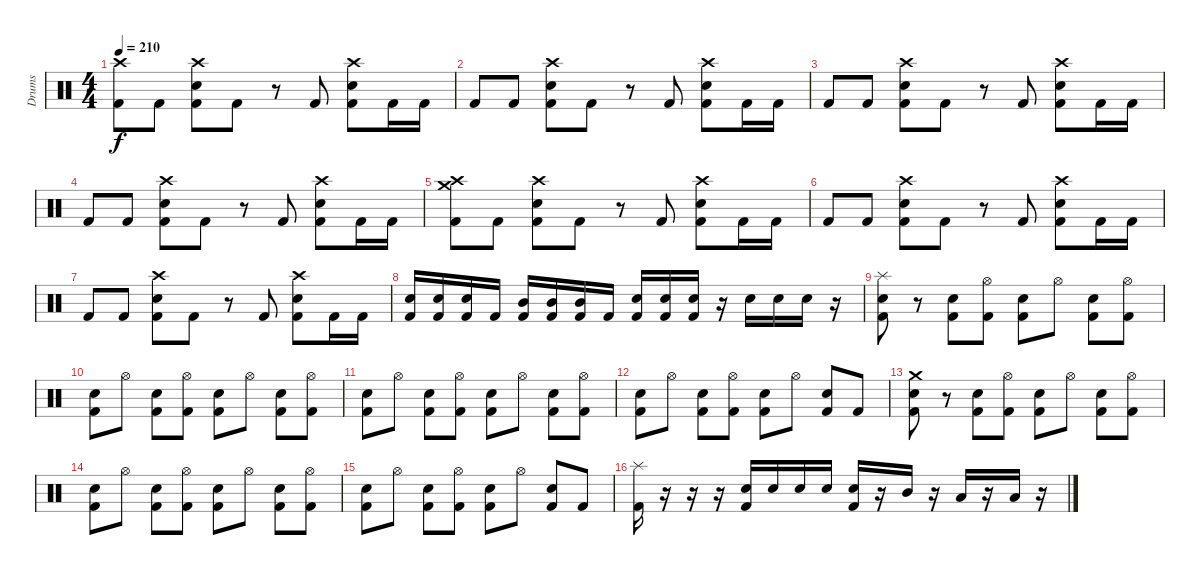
\track ("Drums" "Drums") {instrument percussion}
\staff {score}
\articulation defaults
\ts (4 4)
\tempo 210
\clef neutral
\ks c
("Crash high (hit)" "Kick (hit) 2").8{dy f} "Kick (hit) 2".8 ("Crash high (hit)" "Electric Snare (hit)" "Kick (hit) 2").8 "Kick (hit) 2".8 r.8 "Kick (hit) 2".8 ("Crash high (hit)" "Electric Snare (hit)" "Kick (hit) 2").8 "Kick (hit) 2".16 "Kick (hit) 2".16 |
"Kick (hit) 2".8 "Kick (hit) 2".8 ("Crash high (hit)" "Electric Snare (hit)" "Kick (hit) 2").8 "Kick (hit) 2".8 r.8 "Kick (hit) 2".8 ("Crash high (hit)" "Electric Snare (hit)" "Kick (hit) 2").8 "Kick (hit) 2".16 "Kick (hit) 2".16 |
"Kick (hit) 2".8 "Kick (hit) 2".8 ("Crash high (hit)" "Electric Snare (hit)" "Kick (hit) 2").8 "Kick (hit) 2".8 r.8 "Kick (hit) 2".8 ("Crash high (hit)" "Electric Snare (hit)" "Kick (hit) 2").8 "Kick (hit) 2".16 "Kick (hit) 2".16 |
"Kick (hit) 2".8 "Kick (hit) 2".8 ("Crash high (hit)" "Electric Snare (hit)" "Kick (hit) 2").8 "Kick (hit) 2".8 r.8 "Kick (hit) 2".8 ("Crash high (hit)" "Electric Snare (hit)" "Kick (hit) 2").8 "Kick (hit) 2".16 "Kick (hit) 2".16 |
("Crash high (hit)" "Crash medium (hit)" "Kick (hit) 2").8 "Kick (hit) 2".8 ("Crash high (hit)" "Electric Snare (hit)" "Kick (hit) 2").8 "Kick (hit) 2".8 r.8 "Kick (hit) 2".8 ("Crash high (hit)" "Electric Snare (hit)" "Kick (hit) 2").8 "Kick (hit) 2".16 "Kick (hit) 2".16 |
"Kick (hit) 2".8 "Kick (hit) 2".8 ("Crash high (hit)" "Electric Snare (hit)" "Kick (hit) 2").8 "Kick (hit) 2".8 r.8 "Kick (hit) 2".8 ("Crash high (hit)" "Electric Snare (hit)" "Kick (hit) 2").8 "Kick (hit) 2".16 "Kick (hit) 2".16 |
"Kick (hit) 2".8 "Kick (hit) 2".8 ("Crash high (hit)" "Electric Snare (hit)" "Kick (hit) 2").8 "Kick (hit) 2".8 r.8 "Kick (hit) 2".8 ("Crash high (hit)" "Electric Snare (hit)" "Kick (hit) 2").8 "Kick (hit) 2".16 "Kick (hit) 2".16 |
("Electric Snare (hit)" "Kick (hit) 2").16 ("Electric Snare (hit)" "Kick (hit) 2").16 ("Electric Snare (hit)" "Kick (hit) 2").16 "Kick (hit) 2".16 ("Mid Tom (hit)" "Kick (hit) 2").16 ("Mid Tom (hit)" "Kick (hit) 2").16 ("Mid Tom (hit)" "Kick (hit) 2").16 "Kick (hit) 2".16 ("Electric Snare (hit)" "Kick (hit) 2").16 ("Electric Snare (hit)" "Kick (hit) 2").16 ("Electric Snare (hit)" "Kick (hit) 2").16 r.16 "Electric Snare (hit)".16 "Electric Snare (hit)".16 "Electric Snare (hit)".16 r.16 |
("Splash (hit)" "Electric Snare (hit)" "Kick (hit) 2").8 r.8 ("Electric Snare (hit)" "Kick (hit) 2").8 ("Hi-Hat (open)" "Kick (hit) 2").8 ("Electric Snare (hit)" "Kick (hit) 2").8 "Hi-Hat (open)".8 ("Electric Snare (hit)" "Kick (hit) 2").8 ("Hi-Hat (open)" "Kick (hit) 2").8 |
("Electric Snare (hit)" "Kick (hit) 2").8 "Hi-Hat (open)".8 ("Electric Snare (hit)" "Kick (hit) 2").8 ("Hi-Hat (open)" "Kick (hit) 2").8 ("Electric Snare (hit)" "Kick (hit) 2").8 "Hi-Hat (open)".8 ("Electric Snare (hit)" "Kick (hit) 2").8 ("Hi-Hat (open)" "Kick (hit) 2").8 |
("Electric Snare (hit)" "Kick (hit) 2").8 "Hi-Hat (open)".8 ("Electric Snare (hit)" "Kick (hit) 2").8 ("Hi-Hat (open)" "Kick (hit) 2").8 ("Electric Snare (hit)" "Kick (hit) 2").8 "Hi-Hat (open)".8 ("Electric Snare (hit)" "Kick (hit) 2").8 ("Hi-Hat (open)" "Kick (hit) 2").8 |
("Electric Snare (hit)" "Kick (hit) 2").8 "Hi-Hat (open)".8 ("Electric Snare (hit)" "Kick (hit) 2").8 ("Hi-Hat (open)" "Kick (hit) 2").8 ("Electric Snare (hit)" "Kick (hit) 2").8 "Hi-Hat (open)".8 ("Electric Snare (hit)" "Kick (hit) 2").8 "Kick (hit) 2".8 |
("Crash medium (hit)" "Electric Snare (hit)" "Kick (hit) 2").8 r.8 ("Electric Snare (hit)" "Kick (hit) 2").8 ("Hi-Hat (open)" "Kick (hit) 2").8 ("Electric Snare (hit)" "Kick (hit) 2").8 "Hi-Hat (open)".8 ("Electric Snare (hit)" "Kick (hit) 2").8 ("Hi-Hat (open)" "Kick (hit) 2").8 |
("Electric Snare (hit)" "Kick (hit) 2").8 "Hi-Hat (open)".8 ("Electric Snare (hit)" "Kick (hit) 2").8 ("Hi-Hat (open)" "Kick (hit) 2").8 ("Electric Snare (hit)" "Kick (hit) 2").8 "Hi-Hat (open)".8 ("Electric Snare (hit)" "Kick (hit) 2").8 ("Hi-Hat (open)" "Kick (hit) 2").8 |
("Electric Snare (hit)" "Kick (hit) 2").8 "Hi-Hat (open)".8 ("Electric Snare (hit)" "Kick (hit) 2").8 ("Hi-Hat (open)" "Kick (hit) 2").8 ("Electric Snare (hit)" "Kick (hit) 2").8 "Hi-Hat (open)".8 ("Electric Snare (hit)" "Kick (hit) 2").8 "Kick (hit) 2".8 |
("Splash (hit)" "Kick (hit) 2").16 r.16 r.16 r.16 ("Electric Snare (hit)" "Kick (hit) 2").16 "Electric Snare (hit)".16 "Electric Snare (hit)".16 "Electric Snare (hit)".16 ("Electric Snare (hit)" "Kick (hit) 2").16 r.16 "Mid Tom (hit)".16 r.16 "Low Tom (hit)".16 r.16 "Low Tom (hit)".16 r.16
